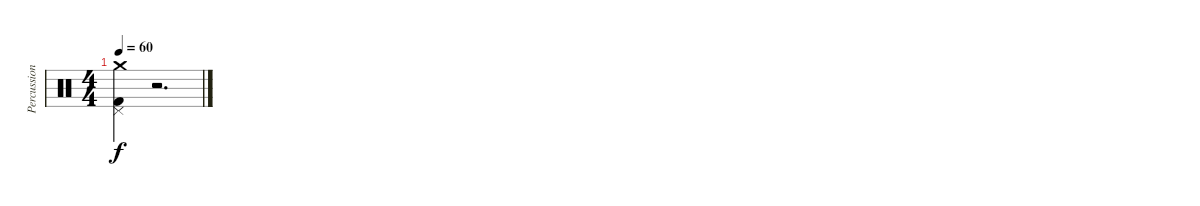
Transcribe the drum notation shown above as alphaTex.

\track ("Percussion" "Percussion") {instrument percussion}
\staff {score}
\articulation defaults
\ts (4 4)
\tempo 60
\clef neutral
\ks c
("Kick (hit) 2" "Pedal Hi-Hat (hit)" "Crash medium (hit)").4{dy f} r.2{d}
